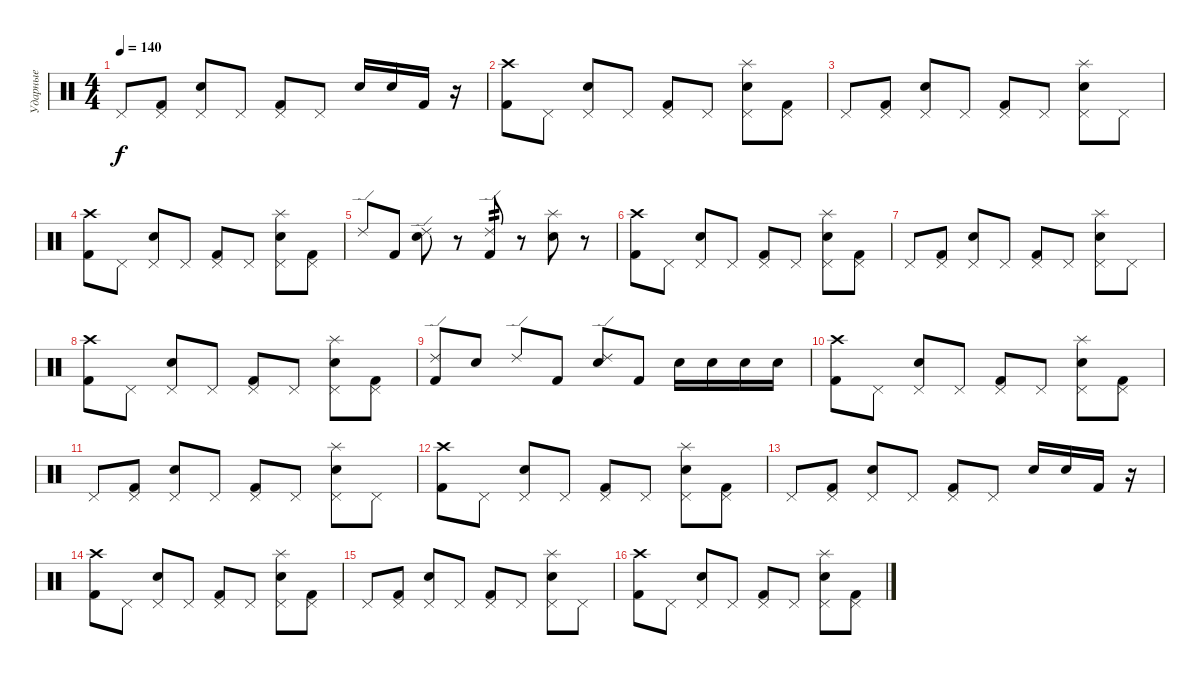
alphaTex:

\track ("Ударные" "Ударные") {instrument percussion}
\staff {score}
\articulation defaults
\ts (4 4)
\tempo 140
\clef neutral
\ks c "Pedal Hi-Hat (hit)".8{dy f}
("Pedal Hi-Hat (hit)" "Kick (hit) 2").8 ("Pedal Hi-Hat (hit)" "Electric Snare (hit)").8 "Pedal Hi-Hat (hit)".8 ("Pedal Hi-Hat (hit)" "Kick (hit) 2").8 "Pedal Hi-Hat (hit)".8 "Electric Snare (hit)".16 "Electric Snare (hit)".16 "Kick (hit) 2".16 r.16 |
("Crash high (hit)" "Kick (hit) 2").8 "Pedal Hi-Hat (hit)".8 ("Pedal Hi-Hat (hit)" "Electric Snare (hit)").8 "Pedal Hi-Hat (hit)".8 ("Pedal Hi-Hat (hit)" "Kick (hit) 2").8 "Pedal Hi-Hat (hit)".8 ("Splash (hit)" "Pedal Hi-Hat (hit)" "Electric Snare (hit)").8 ("Pedal Hi-Hat (hit)" "Kick (hit) 2").8 |
"Pedal Hi-Hat (hit)".8 ("Pedal Hi-Hat (hit)" "Kick (hit) 2").8 ("Pedal Hi-Hat (hit)" "Electric Snare (hit)").8 "Pedal Hi-Hat (hit)".8 ("Pedal Hi-Hat (hit)" "Kick (hit) 2").8 "Pedal Hi-Hat (hit)".8 ("Splash (hit)" "Pedal Hi-Hat (hit)" "Electric Snare (hit)").8 "Pedal Hi-Hat (hit)".8 |
("Crash high (hit)" "Kick (hit) 2").8 "Pedal Hi-Hat (hit)".8 ("Pedal Hi-Hat (hit)" "Electric Snare (hit)").8 "Pedal Hi-Hat (hit)".8 ("Pedal Hi-Hat (hit)" "Kick (hit) 2").8 "Pedal Hi-Hat (hit)".8 ("Splash (hit)" "Pedal Hi-Hat (hit)" "Electric Snare (hit)").8 ("Pedal Hi-Hat (hit)" "Kick (hit) 2").8 |
"Ride (edge) 2".8 "Kick (hit) 2".8 ("Ride (edge) 2" "Electric Snare (hit)").8 r.8 ("Ride (edge) 2" "Kick (hit) 2").8{tp 2} r.8 ("Splash (hit)" "Electric Snare (hit)").8 r.8 |
("Crash high (hit)" "Kick (hit) 2").8 "Pedal Hi-Hat (hit)".8 ("Pedal Hi-Hat (hit)" "Electric Snare (hit)").8 "Pedal Hi-Hat (hit)".8 ("Pedal Hi-Hat (hit)" "Kick (hit) 2").8 "Pedal Hi-Hat (hit)".8 ("Splash (hit)" "Pedal Hi-Hat (hit)" "Electric Snare (hit)").8 ("Pedal Hi-Hat (hit)" "Kick (hit) 2").8 |
"Pedal Hi-Hat (hit)".8 ("Pedal Hi-Hat (hit)" "Kick (hit) 2").8 ("Pedal Hi-Hat (hit)" "Electric Snare (hit)").8 "Pedal Hi-Hat (hit)".8 ("Pedal Hi-Hat (hit)" "Kick (hit) 2").8 "Pedal Hi-Hat (hit)".8 ("Splash (hit)" "Pedal Hi-Hat (hit)" "Electric Snare (hit)").8 "Pedal Hi-Hat (hit)".8 |
("Crash high (hit)" "Kick (hit) 2").8 "Pedal Hi-Hat (hit)".8 ("Pedal Hi-Hat (hit)" "Electric Snare (hit)").8 "Pedal Hi-Hat (hit)".8 ("Pedal Hi-Hat (hit)" "Kick (hit) 2").8 "Pedal Hi-Hat (hit)".8 ("Splash (hit)" "Pedal Hi-Hat (hit)" "Electric Snare (hit)").8 ("Pedal Hi-Hat (hit)" "Kick (hit) 2").8 |
("Ride (edge) 2" "Kick (hit) 2").8 "Electric Snare (hit)".8 "Ride (edge) 2".8 "Kick (hit) 2".8 ("Ride (edge) 2" "Electric Snare (hit)").8 "Kick (hit) 2".8 "Electric Snare (hit)".16 "Electric Snare (hit)".16 "Electric Snare (hit)".16 "Electric Snare (hit)".16 |
("Crash high (hit)" "Kick (hit) 2").8 "Pedal Hi-Hat (hit)".8 ("Pedal Hi-Hat (hit)" "Electric Snare (hit)").8 "Pedal Hi-Hat (hit)".8 ("Pedal Hi-Hat (hit)" "Kick (hit) 2").8 "Pedal Hi-Hat (hit)".8 ("Splash (hit)" "Pedal Hi-Hat (hit)" "Electric Snare (hit)").8 ("Pedal Hi-Hat (hit)" "Kick (hit) 2").8 |
"Pedal Hi-Hat (hit)".8 ("Pedal Hi-Hat (hit)" "Kick (hit) 2").8 ("Pedal Hi-Hat (hit)" "Electric Snare (hit)").8 "Pedal Hi-Hat (hit)".8 ("Pedal Hi-Hat (hit)" "Kick (hit) 2").8 "Pedal Hi-Hat (hit)".8 ("Splash (hit)" "Pedal Hi-Hat (hit)" "Electric Snare (hit)").8 "Pedal Hi-Hat (hit)".8 |
("Crash high (hit)" "Kick (hit) 2").8 "Pedal Hi-Hat (hit)".8 ("Pedal Hi-Hat (hit)" "Electric Snare (hit)").8 "Pedal Hi-Hat (hit)".8 ("Pedal Hi-Hat (hit)" "Kick (hit) 2").8 "Pedal Hi-Hat (hit)".8 ("Splash (hit)" "Pedal Hi-Hat (hit)" "Electric Snare (hit)").8 ("Pedal Hi-Hat (hit)" "Kick (hit) 2").8 |
"Pedal Hi-Hat (hit)".8 ("Pedal Hi-Hat (hit)" "Kick (hit) 2").8 ("Pedal Hi-Hat (hit)" "Electric Snare (hit)").8 "Pedal Hi-Hat (hit)".8 ("Pedal Hi-Hat (hit)" "Kick (hit) 2").8 "Pedal Hi-Hat (hit)".8 "Electric Snare (hit)".16 "Electric Snare (hit)".16 "Kick (hit) 2".16 r.16 |
("Crash high (hit)" "Kick (hit) 2").8 "Pedal Hi-Hat (hit)".8 ("Pedal Hi-Hat (hit)" "Electric Snare (hit)").8 "Pedal Hi-Hat (hit)".8 ("Pedal Hi-Hat (hit)" "Kick (hit) 2").8 "Pedal Hi-Hat (hit)".8 ("Splash (hit)" "Pedal Hi-Hat (hit)" "Electric Snare (hit)").8 ("Pedal Hi-Hat (hit)" "Kick (hit) 2").8 |
"Pedal Hi-Hat (hit)".8 ("Pedal Hi-Hat (hit)" "Kick (hit) 2").8 ("Pedal Hi-Hat (hit)" "Electric Snare (hit)").8 "Pedal Hi-Hat (hit)".8 ("Pedal Hi-Hat (hit)" "Kick (hit) 2").8 "Pedal Hi-Hat (hit)".8 ("Splash (hit)" "Pedal Hi-Hat (hit)" "Electric Snare (hit)").8 "Pedal Hi-Hat (hit)".8 |
("Crash high (hit)" "Kick (hit) 2").8 "Pedal Hi-Hat (hit)".8 ("Pedal Hi-Hat (hit)" "Electric Snare (hit)").8 "Pedal Hi-Hat (hit)".8 ("Pedal Hi-Hat (hit)" "Kick (hit) 2").8 "Pedal Hi-Hat (hit)".8 ("Splash (hit)" "Pedal Hi-Hat (hit)" "Electric Snare (hit)").8 ("Pedal Hi-Hat (hit)" "Kick (hit) 2").8
